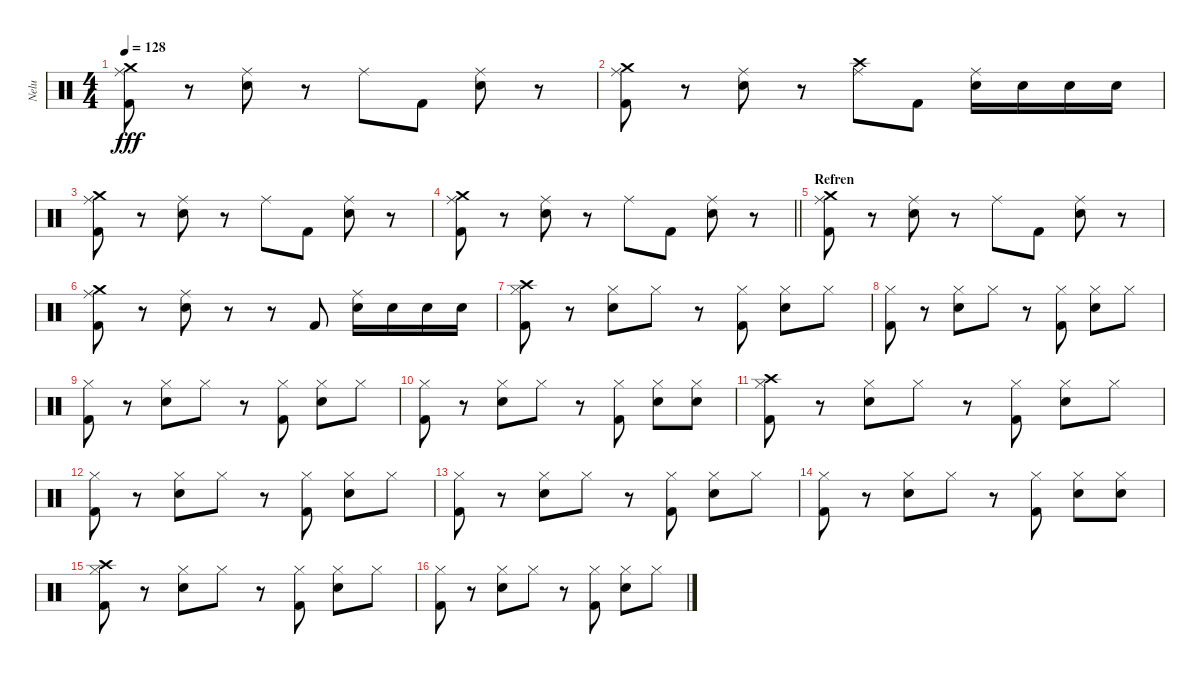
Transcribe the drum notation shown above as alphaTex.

\track ("Nelu" "Nelu") {instrument percussion}
\staff {score}
\articulation defaults
\ts (4 4)
\tempo 128
\clef neutral
\ks c
("Kick (hit) 2" "Crash medium (hit)" "Ride (middle)").8{dy fff} r.8 ("Electric Snare (hit)" "Ride (middle)").8 r.8 "Ride (middle)".8 "Kick (hit) 2".8 ("Ride (middle)" "Electric Snare (hit)").8 r.8 |
("Kick (hit) 2" "Crash medium (hit)" "Ride (middle)").8 r.8 ("Electric Snare (hit)" "Ride (middle)").8 r.8 ("Ride (middle)" "Crash high (hit)").8 "Kick (hit) 2".8 ("Ride (middle)" "Electric Snare (hit)").16 "Electric Snare (hit)".16 "Electric Snare (hit)".16 "Electric Snare (hit)".16 |
("Kick (hit) 2" "Crash medium (hit)" "Ride (middle)").8 r.8 ("Electric Snare (hit)" "Ride (middle)").8 r.8 "Ride (middle)".8 "Kick (hit) 2".8 ("Ride (middle)" "Electric Snare (hit)").8 r.8 |
\barLineRight lightlight
("Kick (hit) 2" "Crash medium (hit)" "Ride (middle)").8 r.8 ("Electric Snare (hit)" "Ride (middle)").8 r.8 "Ride (middle)".8 "Kick (hit) 2".8 ("Ride (middle)" "Electric Snare (hit)").8 r.8 |
\section ("" "Refren")
("Kick (hit) 2" "Crash medium (hit)" "Ride (middle)").8 r.8 ("Electric Snare (hit)" "Ride (middle)").8 r.8 "Ride (middle)".8 "Kick (hit) 2".8 ("Ride (middle)" "Electric Snare (hit)").8 r.8 |
("Kick (hit) 2" "Crash medium (hit)" "Ride (middle)").8 r.8 ("Electric Snare (hit)" "Ride (middle)").8 r.8 r.8 "Kick (hit) 2".8 ("Ride (middle)" "Electric Snare (hit)").16 "Electric Snare (hit)".16 "Electric Snare (hit)".16 "Electric Snare (hit)".16 |
("Kick (hit) 2" "Crash high (hit)" "Hi-Hat (closed)").8 r.8 ("Electric Snare (hit)" "Hi-Hat (closed)").8 "Hi-Hat (closed)".8 r.8 ("Hi-Hat (closed)" "Kick (hit) 2").8 ("Hi-Hat (closed)" "Electric Snare (hit)").8 "Hi-Hat (closed)".8 |
("Kick (hit) 2" "Hi-Hat (closed)").8 r.8 ("Electric Snare (hit)" "Hi-Hat (closed)").8 "Hi-Hat (closed)".8 r.8 ("Hi-Hat (closed)" "Kick (hit) 2").8 ("Hi-Hat (closed)" "Electric Snare (hit)").8 "Hi-Hat (closed)".8 |
("Kick (hit) 2" "Hi-Hat (closed)").8 r.8 ("Electric Snare (hit)" "Hi-Hat (closed)").8 "Hi-Hat (closed)".8 r.8 ("Hi-Hat (closed)" "Kick (hit) 2").8 ("Hi-Hat (closed)" "Electric Snare (hit)").8 "Hi-Hat (closed)".8 |
("Kick (hit) 2" "Hi-Hat (closed)").8 r.8 ("Electric Snare (hit)" "Hi-Hat (closed)").8 "Hi-Hat (closed)".8 r.8 ("Hi-Hat (closed)" "Kick (hit) 2").8 ("Hi-Hat (closed)" "Electric Snare (hit)").8 ("Hi-Hat (closed)" "Electric Snare (hit)").8 |
("Kick (hit) 2" "Crash high (hit)" "Hi-Hat (closed)").8 r.8 ("Electric Snare (hit)" "Hi-Hat (closed)").8 "Hi-Hat (closed)".8 r.8 ("Hi-Hat (closed)" "Kick (hit) 2").8 ("Hi-Hat (closed)" "Electric Snare (hit)").8 "Hi-Hat (closed)".8 |
("Kick (hit) 2" "Hi-Hat (closed)").8 r.8 ("Electric Snare (hit)" "Hi-Hat (closed)").8 "Hi-Hat (closed)".8 r.8 ("Hi-Hat (closed)" "Kick (hit) 2").8 ("Hi-Hat (closed)" "Electric Snare (hit)").8 "Hi-Hat (closed)".8 |
("Kick (hit) 2" "Hi-Hat (closed)").8 r.8 ("Electric Snare (hit)" "Hi-Hat (closed)").8 "Hi-Hat (closed)".8 r.8 ("Hi-Hat (closed)" "Kick (hit) 2").8 ("Hi-Hat (closed)" "Electric Snare (hit)").8 "Hi-Hat (closed)".8 |
("Kick (hit) 2" "Hi-Hat (closed)").8 r.8 ("Electric Snare (hit)" "Hi-Hat (closed)").8 "Hi-Hat (closed)".8 r.8 ("Hi-Hat (closed)" "Kick (hit) 2").8 ("Hi-Hat (closed)" "Electric Snare (hit)").8 ("Hi-Hat (closed)" "Electric Snare (hit)").8 |
("Kick (hit) 2" "Crash high (hit)" "Hi-Hat (closed)").8 r.8 ("Electric Snare (hit)" "Hi-Hat (closed)").8 "Hi-Hat (closed)".8 r.8 ("Hi-Hat (closed)" "Kick (hit) 2").8 ("Hi-Hat (closed)" "Electric Snare (hit)").8 "Hi-Hat (closed)".8 |
("Kick (hit) 2" "Hi-Hat (closed)").8 r.8 ("Electric Snare (hit)" "Hi-Hat (closed)").8 "Hi-Hat (closed)".8 r.8 ("Hi-Hat (closed)" "Kick (hit) 2").8 ("Hi-Hat (closed)" "Electric Snare (hit)").8 "Hi-Hat (closed)".8
